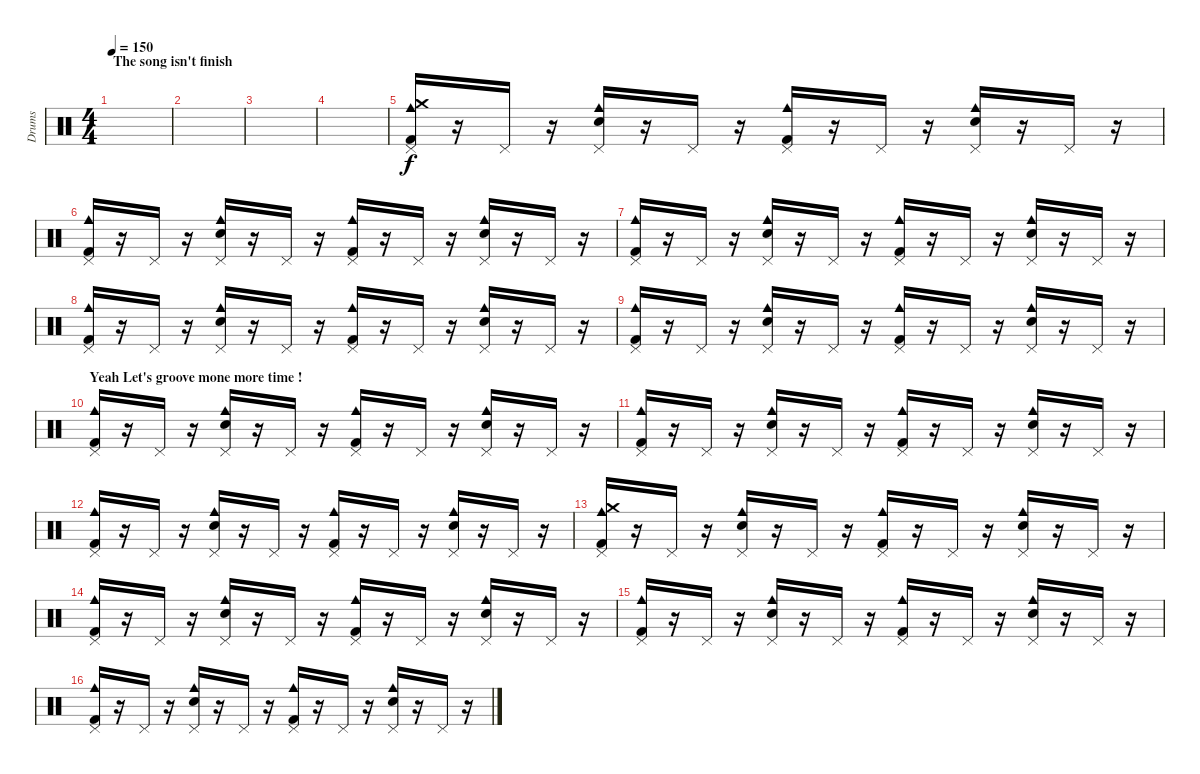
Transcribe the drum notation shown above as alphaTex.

\track ("Drums" "Drums") {instrument percussion}
\staff {score}
\articulation defaults
\ts (4 4)
\section ("" "The song isn't finish")
\tempo 150
\clef neutral
\ks c
|
|
|
|
("Pedal Hi-Hat (hit)" "Crash medium (hit)" "Cowbell medium (hit)" "Kick (hit) 2").16 r.16 "Pedal Hi-Hat (hit)".16 r.16 ("Pedal Hi-Hat (hit)" "Cowbell medium (hit)" "Electric Snare (hit)").16 r.16 "Pedal Hi-Hat (hit)".16 r.16 ("Pedal Hi-Hat (hit)" "Cowbell medium (hit)" "Kick (hit) 2").16 r.16 "Pedal Hi-Hat (hit)".16 r.16 ("Pedal Hi-Hat (hit)" "Electric Snare (hit)" "Cowbell medium (hit)").16 r.16 "Pedal Hi-Hat (hit)".16 r.16 |
("Pedal Hi-Hat (hit)" "Cowbell medium (hit)" "Kick (hit) 2").16 r.16 "Pedal Hi-Hat (hit)".16 r.16 ("Pedal Hi-Hat (hit)" "Cowbell medium (hit)" "Electric Snare (hit)").16 r.16 "Pedal Hi-Hat (hit)".16 r.16 ("Pedal Hi-Hat (hit)" "Cowbell medium (hit)" "Kick (hit) 2").16 r.16 "Pedal Hi-Hat (hit)".16 r.16 ("Pedal Hi-Hat (hit)" "Electric Snare (hit)" "Cowbell medium (hit)").16 r.16 "Pedal Hi-Hat (hit)".16 r.16 |
("Pedal Hi-Hat (hit)" "Cowbell medium (hit)" "Kick (hit) 2").16 r.16 "Pedal Hi-Hat (hit)".16 r.16 ("Pedal Hi-Hat (hit)" "Cowbell medium (hit)" "Electric Snare (hit)").16 r.16 "Pedal Hi-Hat (hit)".16 r.16 ("Pedal Hi-Hat (hit)" "Cowbell medium (hit)" "Kick (hit) 2").16 r.16 "Pedal Hi-Hat (hit)".16 r.16 ("Pedal Hi-Hat (hit)" "Electric Snare (hit)" "Cowbell medium (hit)").16 r.16 "Pedal Hi-Hat (hit)".16 r.16 |
("Pedal Hi-Hat (hit)" "Cowbell medium (hit)" "Kick (hit) 2").16 r.16 "Pedal Hi-Hat (hit)".16 r.16 ("Pedal Hi-Hat (hit)" "Cowbell medium (hit)" "Electric Snare (hit)").16 r.16 "Pedal Hi-Hat (hit)".16 r.16 ("Pedal Hi-Hat (hit)" "Cowbell medium (hit)" "Kick (hit) 2").16 r.16 "Pedal Hi-Hat (hit)".16 r.16 ("Pedal Hi-Hat (hit)" "Electric Snare (hit)" "Cowbell medium (hit)").16 r.16 "Pedal Hi-Hat (hit)".16 r.16 |
("Pedal Hi-Hat (hit)" "Cowbell medium (hit)" "Kick (hit) 2").16 r.16 "Pedal Hi-Hat (hit)".16 r.16 ("Pedal Hi-Hat (hit)" "Cowbell medium (hit)" "Electric Snare (hit)").16 r.16 "Pedal Hi-Hat (hit)".16 r.16 ("Pedal Hi-Hat (hit)" "Cowbell medium (hit)" "Kick (hit) 2").16 r.16 "Pedal Hi-Hat (hit)".16 r.16 ("Pedal Hi-Hat (hit)" "Electric Snare (hit)" "Cowbell medium (hit)").16 r.16 "Pedal Hi-Hat (hit)".16 r.16 |
\section ("" "Yeah Let's groove mone more time !")
("Pedal Hi-Hat (hit)" "Cowbell medium (hit)" "Kick (hit) 2").16 r.16 "Pedal Hi-Hat (hit)".16 r.16 ("Pedal Hi-Hat (hit)" "Cowbell medium (hit)" "Electric Snare (hit)").16 r.16 "Pedal Hi-Hat (hit)".16 r.16 ("Pedal Hi-Hat (hit)" "Cowbell medium (hit)" "Kick (hit) 2").16 r.16 "Pedal Hi-Hat (hit)".16 r.16 ("Pedal Hi-Hat (hit)" "Electric Snare (hit)" "Cowbell medium (hit)").16 r.16 "Pedal Hi-Hat (hit)".16 r.16 |
("Pedal Hi-Hat (hit)" "Cowbell medium (hit)" "Kick (hit) 2").16 r.16 "Pedal Hi-Hat (hit)".16 r.16 ("Pedal Hi-Hat (hit)" "Cowbell medium (hit)" "Electric Snare (hit)").16 r.16 "Pedal Hi-Hat (hit)".16 r.16 ("Pedal Hi-Hat (hit)" "Cowbell medium (hit)" "Kick (hit) 2").16 r.16 "Pedal Hi-Hat (hit)".16 r.16 ("Pedal Hi-Hat (hit)" "Electric Snare (hit)" "Cowbell medium (hit)").16 r.16 "Pedal Hi-Hat (hit)".16 r.16 |
("Pedal Hi-Hat (hit)" "Cowbell medium (hit)" "Kick (hit) 2").16 r.16 "Pedal Hi-Hat (hit)".16 r.16 ("Pedal Hi-Hat (hit)" "Cowbell medium (hit)" "Electric Snare (hit)").16 r.16 "Pedal Hi-Hat (hit)".16 r.16 ("Pedal Hi-Hat (hit)" "Cowbell medium (hit)" "Kick (hit) 2").16 r.16 "Pedal Hi-Hat (hit)".16 r.16 ("Pedal Hi-Hat (hit)" "Electric Snare (hit)" "Cowbell medium (hit)").16 r.16 "Pedal Hi-Hat (hit)".16 r.16 |
("Crash medium (hit)" "Pedal Hi-Hat (hit)" "Cowbell medium (hit)" "Kick (hit) 2").16 r.16 "Pedal Hi-Hat (hit)".16 r.16 ("Pedal Hi-Hat (hit)" "Cowbell medium (hit)" "Electric Snare (hit)").16 r.16 "Pedal Hi-Hat (hit)".16 r.16 ("Pedal Hi-Hat (hit)" "Cowbell medium (hit)" "Kick (hit) 2").16 r.16 "Pedal Hi-Hat (hit)".16 r.16 ("Pedal Hi-Hat (hit)" "Electric Snare (hit)" "Cowbell medium (hit)").16 r.16 "Pedal Hi-Hat (hit)".16 r.16 |
("Pedal Hi-Hat (hit)" "Cowbell medium (hit)" "Kick (hit) 2").16 r.16 "Pedal Hi-Hat (hit)".16 r.16 ("Pedal Hi-Hat (hit)" "Cowbell medium (hit)" "Electric Snare (hit)").16 r.16 "Pedal Hi-Hat (hit)".16 r.16 ("Pedal Hi-Hat (hit)" "Cowbell medium (hit)" "Kick (hit) 2").16 r.16 "Pedal Hi-Hat (hit)".16 r.16 ("Pedal Hi-Hat (hit)" "Electric Snare (hit)" "Cowbell medium (hit)").16 r.16 "Pedal Hi-Hat (hit)".16 r.16 |
("Pedal Hi-Hat (hit)" "Cowbell medium (hit)" "Kick (hit) 2").16 r.16 "Pedal Hi-Hat (hit)".16 r.16 ("Pedal Hi-Hat (hit)" "Cowbell medium (hit)" "Electric Snare (hit)").16 r.16 "Pedal Hi-Hat (hit)".16 r.16 ("Pedal Hi-Hat (hit)" "Cowbell medium (hit)" "Kick (hit) 2").16 r.16 "Pedal Hi-Hat (hit)".16 r.16 ("Pedal Hi-Hat (hit)" "Electric Snare (hit)" "Cowbell medium (hit)").16 r.16 "Pedal Hi-Hat (hit)".16 r.16 |
("Pedal Hi-Hat (hit)" "Cowbell medium (hit)" "Kick (hit) 2").16 r.16 "Pedal Hi-Hat (hit)".16 r.16 ("Pedal Hi-Hat (hit)" "Cowbell medium (hit)" "Electric Snare (hit)").16 r.16 "Pedal Hi-Hat (hit)".16 r.16 ("Pedal Hi-Hat (hit)" "Cowbell medium (hit)" "Kick (hit) 2").16 r.16 "Pedal Hi-Hat (hit)".16 r.16 ("Pedal Hi-Hat (hit)" "Electric Snare (hit)" "Cowbell medium (hit)").16 r.16 "Pedal Hi-Hat (hit)".16 r.16
